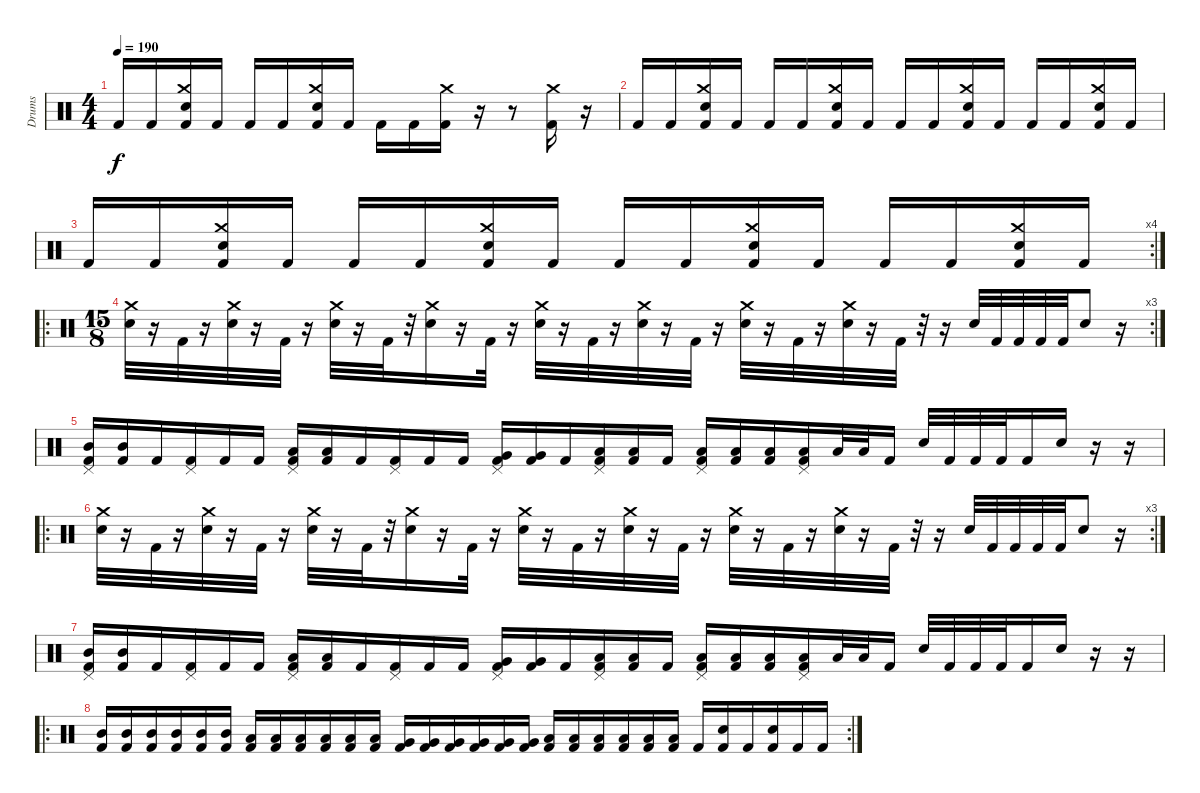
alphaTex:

\track ("Drums" "Drums") {instrument percussion}
\staff {score}
\articulation defaults
\ts (4 4)
\tempo 190
\clef neutral
\ks c "Kick (hit) 2".16{dy f} "Kick (hit) 2".16
("Crash medium (hit)" "Electric Snare (hit)" "Kick (hit) 2").16 "Kick (hit) 2".16 "Kick (hit) 2".16 "Kick (hit) 2".16 ("Crash medium (hit)" "Electric Snare (hit)" "Kick (hit) 2").16 "Kick (hit) 2".16 "Kick (hit) 2".16 "Kick (hit) 2".16 ("Crash medium (hit)" "Kick (hit) 2").16 r.16 r.8 ("Crash medium (hit)" "Kick (hit) 2").16 r.16 |
"Kick (hit) 2".16 "Kick (hit) 2".16 ("Crash medium (hit)" "Electric Snare (hit)" "Kick (hit) 2").16 "Kick (hit) 2".16 "Kick (hit) 2".16 "Kick (hit) 2".16 ("Crash medium (hit)" "Electric Snare (hit)" "Kick (hit) 2").16 "Kick (hit) 2".16 "Kick (hit) 2".16 "Kick (hit) 2".16 ("Crash medium (hit)" "Electric Snare (hit)" "Kick (hit) 2").16 "Kick (hit) 2".16 "Kick (hit) 2".16 "Kick (hit) 2".16 ("Crash medium (hit)" "Electric Snare (hit)" "Kick (hit) 2").16 "Kick (hit) 2".16 |
\rc 4 "Kick (hit) 2".16 "Kick (hit) 2".16
("Crash medium (hit)" "Electric Snare (hit)" "Kick (hit) 2").16 "Kick (hit) 2".16 "Kick (hit) 2".16 "Kick (hit) 2".16 ("Crash medium (hit)" "Electric Snare (hit)" "Kick (hit) 2").16 "Kick (hit) 2".16 "Kick (hit) 2".16 "Kick (hit) 2".16 ("Crash medium (hit)" "Electric Snare (hit)" "Kick (hit) 2").16 "Kick (hit) 2".16 "Kick (hit) 2".16 "Kick (hit) 2".16 ("Crash medium (hit)" "Electric Snare (hit)" "Kick (hit) 2").16 "Kick (hit) 2".16 |
\ro
\rc 3
\ts (15 8)
("Crash medium (hit)" "Electric Snare (hit)").32 r.16 "Kick (hit) 2".32 r.16 ("Crash medium (hit)" "Electric Snare (hit)").32 r.16 "Kick (hit) 2".32 r.16 ("Crash medium (hit)" "Electric Snare (hit)").32 r.16 "Kick (hit) 2".32 r.32 ("Crash medium (hit)" "Electric Snare (hit)").16 r.16 "Kick (hit) 2".32 r.16 ("Crash medium (hit)" "Electric Snare (hit)").32 r.16 "Kick (hit) 2".32 r.16 ("Crash medium (hit)" "Electric Snare (hit)").32 r.16 "Kick (hit) 2".32 r.16 ("Crash medium (hit)" "Electric Snare (hit)").32 r.16 "Kick (hit) 2".32 r.16 ("Crash medium (hit)" "Electric Snare (hit)").32 r.16 "Kick (hit) 2".32 r.32 r.16 "Electric Snare (hit)".32 "Kick (hit) 2".32 "Kick (hit) 2".32 "Kick (hit) 2".32 "Kick (hit) 2".32 "Electric Snare (hit)".8 r.16 |
("Mid Tom (hit)" "Pedal Hi-Hat (hit)" "Kick (hit) 2").16 ("Mid Tom (hit)" "Kick (hit) 2").16 "Kick (hit) 2".16 ("Pedal Hi-Hat (hit)" "Kick (hit) 2").16 "Kick (hit) 2".16 "Kick (hit) 2".16 ("Low Tom (hit)" "Pedal Hi-Hat (hit)" "Kick (hit) 2").16 ("Low Tom (hit)" "Kick (hit) 2").16 "Kick (hit) 2".16 ("Pedal Hi-Hat (hit)" "Kick (hit) 2").16 "Kick (hit) 2".16 "Kick (hit) 2".16 ("Very Low Tom (hit)" "Pedal Hi-Hat (hit)" "Kick (hit) 2").16 ("Very Low Tom (hit)" "Kick (hit) 2").16 "Kick (hit) 2".16 ("Low Floor Tom (hit)" "Pedal Hi-Hat (hit)" "Kick (hit) 2").16 ("Low Floor Tom (hit)" "Kick (hit) 2").16 "Kick (hit) 2".16 ("Low Floor Tom (hit)" "Pedal Hi-Hat (hit)" "Kick (hit) 2").16 ("Low Floor Tom (hit)" "Kick (hit) 2").16 ("Low Floor Tom (hit)" "Kick (hit) 2").16 ("Low Floor Tom (hit)" "Pedal Hi-Hat (hit)" "Kick (hit) 2").16 "Low Floor Tom (hit)".32 "Low Floor Tom (hit)".32 "Kick (hit) 2".16 "Electric Snare (hit)".32 "Kick (hit) 2".32 "Kick (hit) 2".32 "Kick (hit) 2".32 "Kick (hit) 2".16 "Electric Snare (hit)".16 r.16 r.16 |
\ro
\rc 3
("Crash medium (hit)" "Electric Snare (hit)").32 r.16 "Kick (hit) 2".32 r.16 ("Crash medium (hit)" "Electric Snare (hit)").32 r.16 "Kick (hit) 2".32 r.16 ("Crash medium (hit)" "Electric Snare (hit)").32 r.16 "Kick (hit) 2".32 r.32 ("Crash medium (hit)" "Electric Snare (hit)").16 r.16 "Kick (hit) 2".32 r.16 ("Crash medium (hit)" "Electric Snare (hit)").32 r.16 "Kick (hit) 2".32 r.16 ("Crash medium (hit)" "Electric Snare (hit)").32 r.16 "Kick (hit) 2".32 r.16 ("Crash medium (hit)" "Electric Snare (hit)").32 r.16 "Kick (hit) 2".32 r.16 ("Crash medium (hit)" "Electric Snare (hit)").32 r.16 "Kick (hit) 2".32 r.32 r.16 "Electric Snare (hit)".32 "Kick (hit) 2".32 "Kick (hit) 2".32 "Kick (hit) 2".32 "Kick (hit) 2".32 "Electric Snare (hit)".8 r.16 |
("Mid Tom (hit)" "Pedal Hi-Hat (hit)" "Kick (hit) 2").16 ("Mid Tom (hit)" "Kick (hit) 2").16 "Kick (hit) 2".16 ("Pedal Hi-Hat (hit)" "Kick (hit) 2").16 "Kick (hit) 2".16 "Kick (hit) 2".16 ("Low Tom (hit)" "Pedal Hi-Hat (hit)" "Kick (hit) 2").16 ("Low Tom (hit)" "Kick (hit) 2").16 "Kick (hit) 2".16 ("Pedal Hi-Hat (hit)" "Kick (hit) 2").16 "Kick (hit) 2".16 "Kick (hit) 2".16 ("Very Low Tom (hit)" "Pedal Hi-Hat (hit)" "Kick (hit) 2").16 ("Very Low Tom (hit)" "Kick (hit) 2").16 "Kick (hit) 2".16 ("Low Floor Tom (hit)" "Pedal Hi-Hat (hit)" "Kick (hit) 2").16 ("Low Floor Tom (hit)" "Kick (hit) 2").16 "Kick (hit) 2".16 ("Low Floor Tom (hit)" "Pedal Hi-Hat (hit)" "Kick (hit) 2").16 ("Low Floor Tom (hit)" "Kick (hit) 2").16 ("Low Floor Tom (hit)" "Kick (hit) 2").16 ("Low Floor Tom (hit)" "Pedal Hi-Hat (hit)" "Kick (hit) 2").16 "Low Floor Tom (hit)".32 "Low Floor Tom (hit)".32 "Kick (hit) 2".16 "Electric Snare (hit)".32 "Kick (hit) 2".32 "Kick (hit) 2".32 "Kick (hit) 2".32 "Kick (hit) 2".16 "Electric Snare (hit)".16 r.16 r.16 |
\ro
\rc 2
("Mid Tom (hit)" "Kick (hit) 2").16 ("Mid Tom (hit)" "Kick (hit) 2").16 ("Mid Tom (hit)" "Kick (hit) 2").16 ("Mid Tom (hit)" "Kick (hit) 2").16 ("Mid Tom (hit)" "Kick (hit) 2").16 ("Mid Tom (hit)" "Kick (hit) 2").16 ("Low Tom (hit)" "Kick (hit) 2").16 ("Low Tom (hit)" "Kick (hit) 2").16 ("Low Tom (hit)" "Kick (hit) 2").16 ("Low Tom (hit)" "Kick (hit) 2").16 ("Low Tom (hit)" "Kick (hit) 2").16 ("Low Tom (hit)" "Kick (hit) 2").16 ("Very Low Tom (hit)" "Kick (hit) 2").16 ("Very Low Tom (hit)" "Kick (hit) 2").16 ("Very Low Tom (hit)" "Kick (hit) 2").16 ("Very Low Tom (hit)" "Kick (hit) 2").16 ("Very Low Tom (hit)" "Kick (hit) 2").16 ("Very Low Tom (hit)" "Kick (hit) 2").16 ("Low Floor Tom (hit)" "Kick (hit) 2").16 ("Low Floor Tom (hit)" "Kick (hit) 2").16 ("Low Floor Tom (hit)" "Kick (hit) 2").16 ("Low Floor Tom (hit)" "Kick (hit) 2").16 ("Low Floor Tom (hit)" "Kick (hit) 2").16 ("Low Floor Tom (hit)" "Kick (hit) 2").16 "Kick (hit) 2".16 ("Electric Snare (hit)" "Kick (hit) 2").16 "Kick (hit) 2".16 ("Electric Snare (hit)" "Kick (hit) 2").16 "Kick (hit) 2".16 "Kick (hit) 2".16
